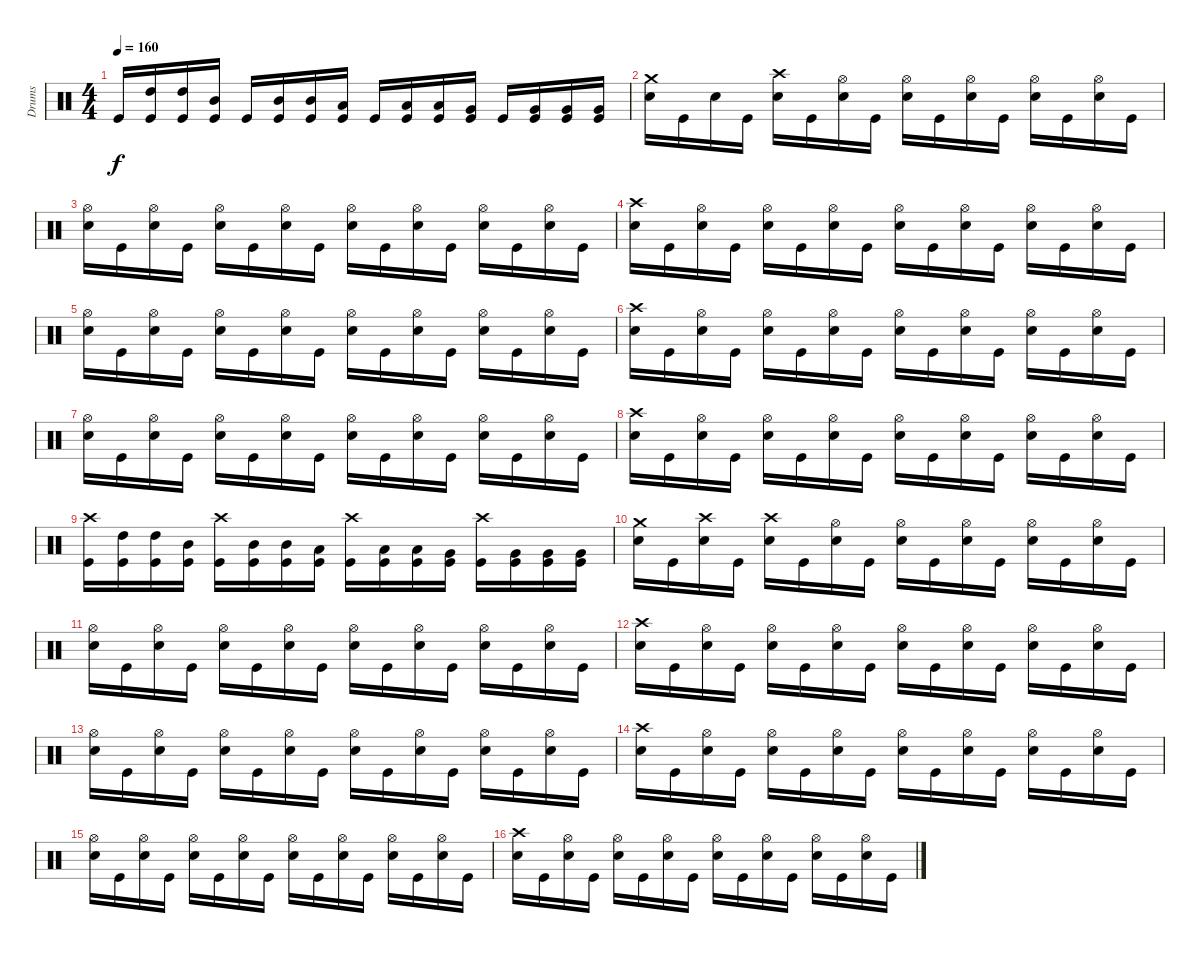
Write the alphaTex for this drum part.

\track ("Drums" "Drums") {instrument percussion}
\staff {score}
\articulation defaults
\ts (4 4)
\tempo 160
\tempo 172
\tempo 160
\clef neutral
\ks c "Kick (hit)".16{dy f}
("High Tom (hit)" "Kick (hit)").16 ("High Tom (hit)" "Kick (hit)").16 ("Mid Tom (hit)" "Kick (hit)").16 "Kick (hit)".16 ("Mid Tom (hit)" "Kick (hit)").16 ("Mid Tom (hit)" "Kick (hit)").16 ("Low Tom (hit)" "Kick (hit)").16 "Kick (hit)".16 ("Low Tom (hit)" "Kick (hit)").16 ("Low Tom (hit)" "Kick (hit)").16 ("Very Low Tom (hit)" "Kick (hit)").16 "Kick (hit)".16 ("Very Low Tom (hit)" "Kick (hit)").16 ("Very Low Tom (hit)" "Kick (hit)").16 ("Very Low Tom (hit)" "Kick (hit)").16 |
("Crash medium (hit)" "Electric Snare (hit)").16 "Kick (hit)".16 "Electric Snare (hit)".16 "Kick (hit)".16 ("Crash high (hit)" "Electric Snare (hit)").16 "Kick (hit)".16 ("Hi-Hat (open)" "Electric Snare (hit)").16 "Kick (hit)".16 ("Hi-Hat (open)" "Electric Snare (hit)").16 "Kick (hit)".16 ("Hi-Hat (open)" "Electric Snare (hit)").16 "Kick (hit)".16 ("Hi-Hat (open)" "Electric Snare (hit)").16 "Kick (hit)".16 ("Hi-Hat (open)" "Electric Snare (hit)").16 "Kick (hit)".16 |
("Hi-Hat (open)" "Electric Snare (hit)").16 "Kick (hit)".16 ("Hi-Hat (open)" "Electric Snare (hit)").16 "Kick (hit)".16 ("Hi-Hat (open)" "Electric Snare (hit)").16 "Kick (hit)".16 ("Hi-Hat (open)" "Electric Snare (hit)").16 "Kick (hit)".16 ("Hi-Hat (open)" "Electric Snare (hit)").16 "Kick (hit)".16 ("Hi-Hat (open)" "Electric Snare (hit)").16 "Kick (hit)".16 ("Hi-Hat (open)" "Electric Snare (hit)").16 "Kick (hit)".16 ("Hi-Hat (open)" "Electric Snare (hit)").16 "Kick (hit)".16 |
("Crash high (hit)" "Electric Snare (hit)").16 "Kick (hit)".16 ("Hi-Hat (open)" "Electric Snare (hit)").16 "Kick (hit)".16 ("Hi-Hat (open)" "Electric Snare (hit)").16 "Kick (hit)".16 ("Hi-Hat (open)" "Electric Snare (hit)").16 "Kick (hit)".16 ("Hi-Hat (open)" "Electric Snare (hit)").16 "Kick (hit)".16 ("Hi-Hat (open)" "Electric Snare (hit)").16 "Kick (hit)".16 ("Hi-Hat (open)" "Electric Snare (hit)").16 "Kick (hit)".16 ("Hi-Hat (open)" "Electric Snare (hit)").16 "Kick (hit)".16 |
("Hi-Hat (open)" "Electric Snare (hit)").16 "Kick (hit)".16 ("Hi-Hat (open)" "Electric Snare (hit)").16 "Kick (hit)".16 ("Hi-Hat (open)" "Electric Snare (hit)").16 "Kick (hit)".16 ("Hi-Hat (open)" "Electric Snare (hit)").16 "Kick (hit)".16 ("Hi-Hat (open)" "Electric Snare (hit)").16 "Kick (hit)".16 ("Hi-Hat (open)" "Electric Snare (hit)").16 "Kick (hit)".16 ("Hi-Hat (open)" "Electric Snare (hit)").16 "Kick (hit)".16 ("Hi-Hat (open)" "Electric Snare (hit)").16 "Kick (hit)".16 |
("Crash high (hit)" "Electric Snare (hit)").16 "Kick (hit)".16 ("Hi-Hat (open)" "Electric Snare (hit)").16 "Kick (hit)".16 ("Hi-Hat (open)" "Electric Snare (hit)").16 "Kick (hit)".16 ("Hi-Hat (open)" "Electric Snare (hit)").16 "Kick (hit)".16 ("Hi-Hat (open)" "Electric Snare (hit)").16 "Kick (hit)".16 ("Hi-Hat (open)" "Electric Snare (hit)").16 "Kick (hit)".16 ("Hi-Hat (open)" "Electric Snare (hit)").16 "Kick (hit)".16 ("Hi-Hat (open)" "Electric Snare (hit)").16 "Kick (hit)".16 |
("Hi-Hat (open)" "Electric Snare (hit)").16 "Kick (hit)".16 ("Hi-Hat (open)" "Electric Snare (hit)").16 "Kick (hit)".16 ("Hi-Hat (open)" "Electric Snare (hit)").16 "Kick (hit)".16 ("Hi-Hat (open)" "Electric Snare (hit)").16 "Kick (hit)".16 ("Hi-Hat (open)" "Electric Snare (hit)").16 "Kick (hit)".16 ("Hi-Hat (open)" "Electric Snare (hit)").16 "Kick (hit)".16 ("Hi-Hat (open)" "Electric Snare (hit)").16 "Kick (hit)".16 ("Hi-Hat (open)" "Electric Snare (hit)").16 "Kick (hit)".16 |
("Crash high (hit)" "Electric Snare (hit)").16 "Kick (hit)".16 ("Hi-Hat (open)" "Electric Snare (hit)").16 "Kick (hit)".16 ("Hi-Hat (open)" "Electric Snare (hit)").16 "Kick (hit)".16 ("Hi-Hat (open)" "Electric Snare (hit)").16 "Kick (hit)".16 ("Hi-Hat (open)" "Electric Snare (hit)").16 "Kick (hit)".16 ("Hi-Hat (open)" "Electric Snare (hit)").16 "Kick (hit)".16 ("Hi-Hat (open)" "Electric Snare (hit)").16 "Kick (hit)".16 ("Hi-Hat (open)" "Electric Snare (hit)").16 "Kick (hit)".16 |
("Crash high (hit)" "Kick (hit)").16 ("High Tom (hit)" "Kick (hit)").16 ("High Tom (hit)" "Kick (hit)").16 ("Mid Tom (hit)" "Kick (hit)").16 ("Crash high (hit)" "Kick (hit)").16 ("Mid Tom (hit)" "Kick (hit)").16 ("Mid Tom (hit)" "Kick (hit)").16 ("Low Tom (hit)" "Kick (hit)").16 ("Crash high (hit)" "Kick (hit)").16 ("Low Tom (hit)" "Kick (hit)").16 ("Low Tom (hit)" "Kick (hit)").16 ("Very Low Tom (hit)" "Kick (hit)").16 ("Crash high (hit)" "Kick (hit)").16 ("Very Low Tom (hit)" "Kick (hit)").16 ("Very Low Tom (hit)" "Kick (hit)").16 ("Very Low Tom (hit)" "Kick (hit)").16 |
("Crash medium (hit)" "Electric Snare (hit)").16 "Kick (hit)".16 ("Crash high (hit)" "Electric Snare (hit)").16 "Kick (hit)".16 ("Crash high (hit)" "Electric Snare (hit)").16 "Kick (hit)".16 ("Hi-Hat (open)" "Electric Snare (hit)").16 "Kick (hit)".16 ("Hi-Hat (open)" "Electric Snare (hit)").16 "Kick (hit)".16 ("Hi-Hat (open)" "Electric Snare (hit)").16 "Kick (hit)".16 ("Hi-Hat (open)" "Electric Snare (hit)").16 "Kick (hit)".16 ("Hi-Hat (open)" "Electric Snare (hit)").16 "Kick (hit)".16 |
("Hi-Hat (open)" "Electric Snare (hit)").16 "Kick (hit)".16 ("Hi-Hat (open)" "Electric Snare (hit)").16 "Kick (hit)".16 ("Hi-Hat (open)" "Electric Snare (hit)").16 "Kick (hit)".16 ("Hi-Hat (open)" "Electric Snare (hit)").16 "Kick (hit)".16 ("Hi-Hat (open)" "Electric Snare (hit)").16 "Kick (hit)".16 ("Hi-Hat (open)" "Electric Snare (hit)").16 "Kick (hit)".16 ("Hi-Hat (open)" "Electric Snare (hit)").16 "Kick (hit)".16 ("Hi-Hat (open)" "Electric Snare (hit)").16 "Kick (hit)".16 |
("Crash high (hit)" "Electric Snare (hit)").16 "Kick (hit)".16 ("Hi-Hat (open)" "Electric Snare (hit)").16 "Kick (hit)".16 ("Hi-Hat (open)" "Electric Snare (hit)").16 "Kick (hit)".16 ("Hi-Hat (open)" "Electric Snare (hit)").16 "Kick (hit)".16 ("Hi-Hat (open)" "Electric Snare (hit)").16 "Kick (hit)".16 ("Hi-Hat (open)" "Electric Snare (hit)").16 "Kick (hit)".16 ("Hi-Hat (open)" "Electric Snare (hit)").16 "Kick (hit)".16 ("Hi-Hat (open)" "Electric Snare (hit)").16 "Kick (hit)".16 |
("Hi-Hat (open)" "Electric Snare (hit)").16 "Kick (hit)".16 ("Hi-Hat (open)" "Electric Snare (hit)").16 "Kick (hit)".16 ("Hi-Hat (open)" "Electric Snare (hit)").16 "Kick (hit)".16 ("Hi-Hat (open)" "Electric Snare (hit)").16 "Kick (hit)".16 ("Hi-Hat (open)" "Electric Snare (hit)").16 "Kick (hit)".16 ("Hi-Hat (open)" "Electric Snare (hit)").16 "Kick (hit)".16 ("Hi-Hat (open)" "Electric Snare (hit)").16 "Kick (hit)".16 ("Hi-Hat (open)" "Electric Snare (hit)").16 "Kick (hit)".16 |
("Crash high (hit)" "Electric Snare (hit)").16 "Kick (hit)".16 ("Hi-Hat (open)" "Electric Snare (hit)").16 "Kick (hit)".16 ("Hi-Hat (open)" "Electric Snare (hit)").16 "Kick (hit)".16 ("Hi-Hat (open)" "Electric Snare (hit)").16 "Kick (hit)".16 ("Hi-Hat (open)" "Electric Snare (hit)").16 "Kick (hit)".16 ("Hi-Hat (open)" "Electric Snare (hit)").16 "Kick (hit)".16 ("Hi-Hat (open)" "Electric Snare (hit)").16 "Kick (hit)".16 ("Hi-Hat (open)" "Electric Snare (hit)").16 "Kick (hit)".16 |
("Hi-Hat (open)" "Electric Snare (hit)").16 "Kick (hit)".16 ("Hi-Hat (open)" "Electric Snare (hit)").16 "Kick (hit)".16 ("Hi-Hat (open)" "Electric Snare (hit)").16 "Kick (hit)".16 ("Hi-Hat (open)" "Electric Snare (hit)").16 "Kick (hit)".16 ("Hi-Hat (open)" "Electric Snare (hit)").16 "Kick (hit)".16 ("Hi-Hat (open)" "Electric Snare (hit)").16 "Kick (hit)".16 ("Hi-Hat (open)" "Electric Snare (hit)").16 "Kick (hit)".16 ("Hi-Hat (open)" "Electric Snare (hit)").16 "Kick (hit)".16 |
("Crash high (hit)" "Electric Snare (hit)").16 "Kick (hit)".16 ("Hi-Hat (open)" "Electric Snare (hit)").16 "Kick (hit)".16 ("Hi-Hat (open)" "Electric Snare (hit)").16 "Kick (hit)".16 ("Hi-Hat (open)" "Electric Snare (hit)").16 "Kick (hit)".16 ("Hi-Hat (open)" "Electric Snare (hit)").16 "Kick (hit)".16 ("Hi-Hat (open)" "Electric Snare (hit)").16 "Kick (hit)".16 ("Hi-Hat (open)" "Electric Snare (hit)").16 "Kick (hit)".16 ("Hi-Hat (open)" "Electric Snare (hit)").16 "Kick (hit)".16
